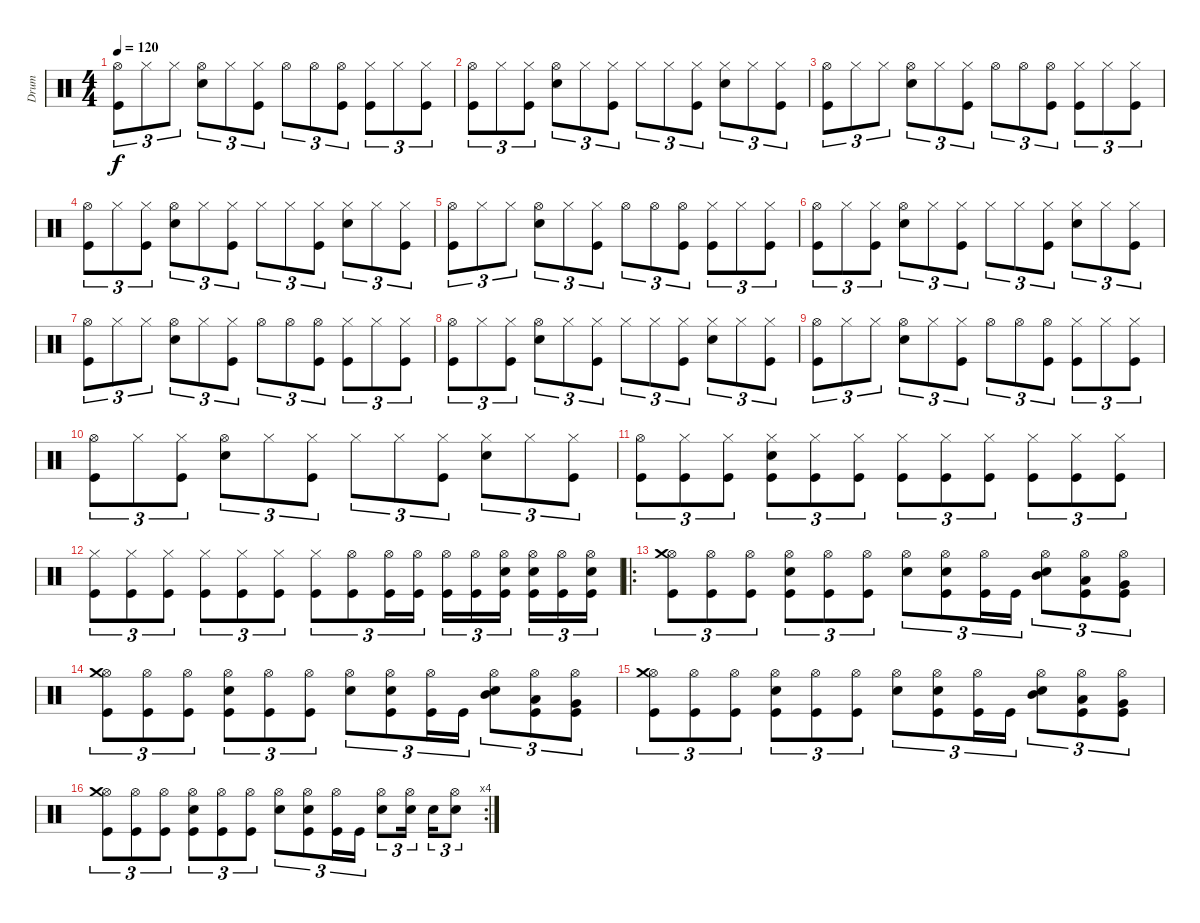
\track ("Drum" "Drum") {instrument percussion}
\staff {score}
\articulation defaults
\ts (4 4)
\tempo 120
\clef neutral
\ks c
("Hi-Hat (open)" "Kick (hit)").8{tu (3 2) dy f} "Hi-Hat (closed)".8{tu (3 2)} "Hi-Hat (closed)".8{tu (3 2)} ("Hi-Hat (open)" "Electric Snare (hit)").8{tu (3 2)} "Hi-Hat (closed)".8{tu (3 2)} ("Hi-Hat (closed)" "Kick (hit)").8{tu (3 2)} "Hi-Hat (open)".8{tu (3 2)} "Hi-Hat (open)".8{tu (3 2)} ("Hi-Hat (open)" "Kick (hit)").8{tu (3 2)} ("Hi-Hat (closed)" "Kick (hit)").8{tu (3 2)} "Hi-Hat (closed)".8{tu (3 2)} ("Hi-Hat (closed)" "Kick (hit)").8{tu (3 2)} |
("Hi-Hat (open)" "Kick (hit)").8{tu (3 2)} "Hi-Hat (closed)".8{tu (3 2)} ("Hi-Hat (closed)" "Kick (hit)").8{tu (3 2)} ("Hi-Hat (open)" "Electric Snare (hit)").8{tu (3 2)} "Hi-Hat (closed)".8{tu (3 2)} ("Hi-Hat (closed)" "Kick (hit)").8{tu (3 2)} "Hi-Hat (closed)".8{tu (3 2)} "Hi-Hat (closed)".8{tu (3 2)} ("Hi-Hat (closed)" "Kick (hit)").8{tu (3 2)} ("Hi-Hat (closed)" "Electric Snare (hit)").8{tu (3 2)} "Hi-Hat (closed)".8{tu (3 2)} ("Hi-Hat (closed)" "Kick (hit)").8{tu (3 2)} |
("Hi-Hat (open)" "Kick (hit)").8{tu (3 2)} "Hi-Hat (closed)".8{tu (3 2)} "Hi-Hat (closed)".8{tu (3 2)} ("Hi-Hat (open)" "Electric Snare (hit)").8{tu (3 2)} "Hi-Hat (closed)".8{tu (3 2)} ("Hi-Hat (closed)" "Kick (hit)").8{tu (3 2)} "Hi-Hat (open)".8{tu (3 2)} "Hi-Hat (open)".8{tu (3 2)} ("Hi-Hat (open)" "Kick (hit)").8{tu (3 2)} ("Hi-Hat (closed)" "Kick (hit)").8{tu (3 2)} "Hi-Hat (closed)".8{tu (3 2)} ("Hi-Hat (closed)" "Kick (hit)").8{tu (3 2)} |
("Hi-Hat (open)" "Kick (hit)").8{tu (3 2)} "Hi-Hat (closed)".8{tu (3 2)} ("Hi-Hat (closed)" "Kick (hit)").8{tu (3 2)} ("Hi-Hat (open)" "Electric Snare (hit)").8{tu (3 2)} "Hi-Hat (closed)".8{tu (3 2)} ("Hi-Hat (closed)" "Kick (hit)").8{tu (3 2)} "Hi-Hat (closed)".8{tu (3 2)} "Hi-Hat (closed)".8{tu (3 2)} ("Hi-Hat (closed)" "Kick (hit)").8{tu (3 2)} ("Hi-Hat (closed)" "Electric Snare (hit)").8{tu (3 2)} "Hi-Hat (closed)".8{tu (3 2)} ("Hi-Hat (closed)" "Kick (hit)").8{tu (3 2)} |
("Hi-Hat (open)" "Kick (hit)").8{tu (3 2)} "Hi-Hat (closed)".8{tu (3 2)} "Hi-Hat (closed)".8{tu (3 2)} ("Hi-Hat (open)" "Electric Snare (hit)").8{tu (3 2)} "Hi-Hat (closed)".8{tu (3 2)} ("Hi-Hat (closed)" "Kick (hit)").8{tu (3 2)} "Hi-Hat (open)".8{tu (3 2)} "Hi-Hat (open)".8{tu (3 2)} ("Hi-Hat (open)" "Kick (hit)").8{tu (3 2)} ("Hi-Hat (closed)" "Kick (hit)").8{tu (3 2)} "Hi-Hat (closed)".8{tu (3 2)} ("Hi-Hat (closed)" "Kick (hit)").8{tu (3 2)} |
("Hi-Hat (open)" "Kick (hit)").8{tu (3 2)} "Hi-Hat (closed)".8{tu (3 2)} ("Hi-Hat (closed)" "Kick (hit)").8{tu (3 2)} ("Hi-Hat (open)" "Electric Snare (hit)").8{tu (3 2)} "Hi-Hat (closed)".8{tu (3 2)} ("Hi-Hat (closed)" "Kick (hit)").8{tu (3 2)} "Hi-Hat (closed)".8{tu (3 2)} "Hi-Hat (closed)".8{tu (3 2)} ("Hi-Hat (closed)" "Kick (hit)").8{tu (3 2)} ("Hi-Hat (closed)" "Electric Snare (hit)").8{tu (3 2)} "Hi-Hat (closed)".8{tu (3 2)} ("Hi-Hat (closed)" "Kick (hit)").8{tu (3 2)} |
("Hi-Hat (open)" "Kick (hit)").8{tu (3 2)} "Hi-Hat (closed)".8{tu (3 2)} "Hi-Hat (closed)".8{tu (3 2)} ("Hi-Hat (open)" "Electric Snare (hit)").8{tu (3 2)} "Hi-Hat (closed)".8{tu (3 2)} ("Hi-Hat (closed)" "Kick (hit)").8{tu (3 2)} "Hi-Hat (open)".8{tu (3 2)} "Hi-Hat (open)".8{tu (3 2)} ("Hi-Hat (open)" "Kick (hit)").8{tu (3 2)} ("Hi-Hat (closed)" "Kick (hit)").8{tu (3 2)} "Hi-Hat (closed)".8{tu (3 2)} ("Hi-Hat (closed)" "Kick (hit)").8{tu (3 2)} |
("Hi-Hat (open)" "Kick (hit)").8{tu (3 2)} "Hi-Hat (closed)".8{tu (3 2)} ("Hi-Hat (closed)" "Kick (hit)").8{tu (3 2)} ("Hi-Hat (open)" "Electric Snare (hit)").8{tu (3 2)} "Hi-Hat (closed)".8{tu (3 2)} ("Hi-Hat (closed)" "Kick (hit)").8{tu (3 2)} "Hi-Hat (closed)".8{tu (3 2)} "Hi-Hat (closed)".8{tu (3 2)} ("Hi-Hat (closed)" "Kick (hit)").8{tu (3 2)} ("Hi-Hat (closed)" "Electric Snare (hit)").8{tu (3 2)} "Hi-Hat (closed)".8{tu (3 2)} ("Hi-Hat (closed)" "Kick (hit)").8{tu (3 2)} |
("Hi-Hat (open)" "Kick (hit)").8{tu (3 2)} "Hi-Hat (closed)".8{tu (3 2)} "Hi-Hat (closed)".8{tu (3 2)} ("Hi-Hat (open)" "Electric Snare (hit)").8{tu (3 2)} "Hi-Hat (closed)".8{tu (3 2)} ("Hi-Hat (closed)" "Kick (hit)").8{tu (3 2)} "Hi-Hat (open)".8{tu (3 2)} "Hi-Hat (open)".8{tu (3 2)} ("Hi-Hat (open)" "Kick (hit)").8{tu (3 2)} ("Hi-Hat (closed)" "Kick (hit)").8{tu (3 2)} "Hi-Hat (closed)".8{tu (3 2)} ("Hi-Hat (closed)" "Kick (hit)").8{tu (3 2)} |
("Hi-Hat (open)" "Kick (hit)").8{tu (3 2)} "Hi-Hat (closed)".8{tu (3 2)} ("Hi-Hat (closed)" "Kick (hit)").8{tu (3 2)} ("Hi-Hat (open)" "Electric Snare (hit)").8{tu (3 2)} "Hi-Hat (closed)".8{tu (3 2)} ("Hi-Hat (closed)" "Kick (hit)").8{tu (3 2)} "Hi-Hat (closed)".8{tu (3 2)} "Hi-Hat (closed)".8{tu (3 2)} ("Hi-Hat (closed)" "Kick (hit)").8{tu (3 2)} ("Hi-Hat (closed)" "Electric Snare (hit)").8{tu (3 2)} "Hi-Hat (closed)".8{tu (3 2)} ("Hi-Hat (closed)" "Kick (hit)").8{tu (3 2)} |
("Hi-Hat (open)" "Kick (hit)").8{tu (3 2)} ("Hi-Hat (closed)" "Kick (hit)").8{tu (3 2)} ("Hi-Hat (closed)" "Kick (hit)").8{tu (3 2)} ("Hi-Hat (closed)" "Electric Snare (hit)" "Kick (hit)").8{tu (3 2)} ("Hi-Hat (closed)" "Kick (hit)").8{tu (3 2)} ("Hi-Hat (closed)" "Kick (hit)").8{tu (3 2)} ("Hi-Hat (closed)" "Kick (hit)").8{tu (3 2)} ("Hi-Hat (closed)" "Kick (hit)").8{tu (3 2)} ("Hi-Hat (closed)" "Kick (hit)").8{tu (3 2)} ("Hi-Hat (closed)" "Kick (hit)").8{tu (3 2)} ("Hi-Hat (closed)" "Kick (hit)").8{tu (3 2)} ("Hi-Hat (closed)" "Kick (hit)").8{tu (3 2)} |
("Hi-Hat (closed)" "Kick (hit)").8{tu (3 2)} ("Hi-Hat (closed)" "Kick (hit)").8{tu (3 2)} ("Hi-Hat (closed)" "Kick (hit)").8{tu (3 2)} ("Hi-Hat (closed)" "Kick (hit)").8{tu (3 2)} ("Hi-Hat (closed)" "Kick (hit)").8{tu (3 2)} ("Hi-Hat (closed)" "Kick (hit)").8{tu (3 2)} ("Hi-Hat (closed)" "Kick (hit)").8{tu (3 2)} ("Hi-Hat (open)" "Kick (hit)").8{tu (3 2)} ("Hi-Hat (open)" "Kick (hit)").16{tu (3 2)} ("Hi-Hat (open)" "Kick (hit)").16{tu (3 2)} ("Hi-Hat (open)" "Kick (hit)").16{tu (3 2)} ("Hi-Hat (open)" "Kick (hit)").16{tu (3 2)} ("Hi-Hat (open)" "Electric Snare (hit)" "Kick (hit)").16{tu (3 2)} ("Hi-Hat (open)" "Electric Snare (hit)" "Kick (hit)").16{tu (3 2)} ("Hi-Hat (open)" "Kick (hit)").16{tu (3 2)} ("Hi-Hat (open)" "Electric Snare (hit)" "Kick (hit)").16{tu (3 2)} |
\ro
("Hi-Hat (open)" "Crash medium (hit)" "Kick (hit)").8{tu (3 2)} ("Hi-Hat (open)" "Kick (hit)").8{tu (3 2)} ("Hi-Hat (open)" "Kick (hit)").8{tu (3 2)} ("Hi-Hat (open)" "Electric Snare (hit)" "Kick (hit)").8{tu (3 2)} ("Hi-Hat (open)" "Kick (hit)").8{tu (3 2)} ("Hi-Hat (open)" "Kick (hit)").8{tu (3 2)} ("Hi-Hat (open)" "Electric Snare (hit)").8{tu (3 2)} ("Hi-Hat (open)" "Electric Snare (hit)" "Kick (hit)").8{tu (3 2)} ("Hi-Hat (open)" "Kick (hit)").16{tu (3 2)} "Kick (hit)".16{tu (3 2)} ("Hi-Hat (open)" "Mid Tom (hit)" "Electric Snare (hit)").8{tu (3 2)} ("Hi-Hat (open)" "Low Tom (hit)" "Kick (hit)").8{tu (3 2)} ("Hi-Hat (open)" "Very Low Tom (hit)" "Kick (hit)").8{tu (3 2)} |
("Hi-Hat (open)" "Crash medium (hit)" "Kick (hit)").8{tu (3 2)} ("Hi-Hat (open)" "Kick (hit)").8{tu (3 2)} ("Hi-Hat (open)" "Kick (hit)").8{tu (3 2)} ("Hi-Hat (open)" "Electric Snare (hit)" "Kick (hit)").8{tu (3 2)} ("Hi-Hat (open)" "Kick (hit)").8{tu (3 2)} ("Hi-Hat (open)" "Kick (hit)").8{tu (3 2)} ("Hi-Hat (open)" "Electric Snare (hit)").8{tu (3 2)} ("Hi-Hat (open)" "Electric Snare (hit)" "Kick (hit)").8{tu (3 2)} ("Hi-Hat (open)" "Kick (hit)").16{tu (3 2)} "Kick (hit)".16{tu (3 2)} ("Hi-Hat (open)" "Mid Tom (hit)" "Electric Snare (hit)").8{tu (3 2)} ("Hi-Hat (open)" "Low Tom (hit)" "Kick (hit)").8{tu (3 2)} ("Hi-Hat (open)" "Very Low Tom (hit)" "Kick (hit)").8{tu (3 2)} |
("Hi-Hat (open)" "Crash medium (hit)" "Kick (hit)").8{tu (3 2)} ("Hi-Hat (open)" "Kick (hit)").8{tu (3 2)} ("Hi-Hat (open)" "Kick (hit)").8{tu (3 2)} ("Hi-Hat (open)" "Electric Snare (hit)" "Kick (hit)").8{tu (3 2)} ("Hi-Hat (open)" "Kick (hit)").8{tu (3 2)} ("Hi-Hat (open)" "Kick (hit)").8{tu (3 2)} ("Hi-Hat (open)" "Electric Snare (hit)").8{tu (3 2)} ("Hi-Hat (open)" "Electric Snare (hit)" "Kick (hit)").8{tu (3 2)} ("Hi-Hat (open)" "Kick (hit)").16{tu (3 2)} "Kick (hit)".16{tu (3 2)} ("Hi-Hat (open)" "Mid Tom (hit)" "Electric Snare (hit)").8{tu (3 2)} ("Hi-Hat (open)" "Low Tom (hit)" "Kick (hit)").8{tu (3 2)} ("Hi-Hat (open)" "Very Low Tom (hit)" "Kick (hit)").8{tu (3 2)} |
\rc 4
("Hi-Hat (open)" "Crash medium (hit)" "Kick (hit)").8{tu (3 2)} ("Hi-Hat (open)" "Kick (hit)").8{tu (3 2)} ("Hi-Hat (open)" "Kick (hit)").8{tu (3 2)} ("Hi-Hat (open)" "Electric Snare (hit)" "Kick (hit)").8{tu (3 2)} ("Hi-Hat (open)" "Kick (hit)").8{tu (3 2)} ("Hi-Hat (open)" "Kick (hit)").8{tu (3 2)} ("Hi-Hat (open)" "Electric Snare (hit)").8{tu (3 2)} ("Hi-Hat (open)" "Electric Snare (hit)" "Kick (hit)").8{tu (3 2)} ("Hi-Hat (open)" "Kick (hit)").16{tu (3 2)} "Kick (hit)".16{tu (3 2)} ("Hi-Hat (open)" "Electric Snare (hit)").8{tu (3 2)} ("Hi-Hat (open)" "Electric Snare (hit)").16{tu (3 2)} "Electric Snare (hit)".16{tu (3 2)} ("Hi-Hat (open)" "Electric Snare (hit)").8{tu (3 2)}
